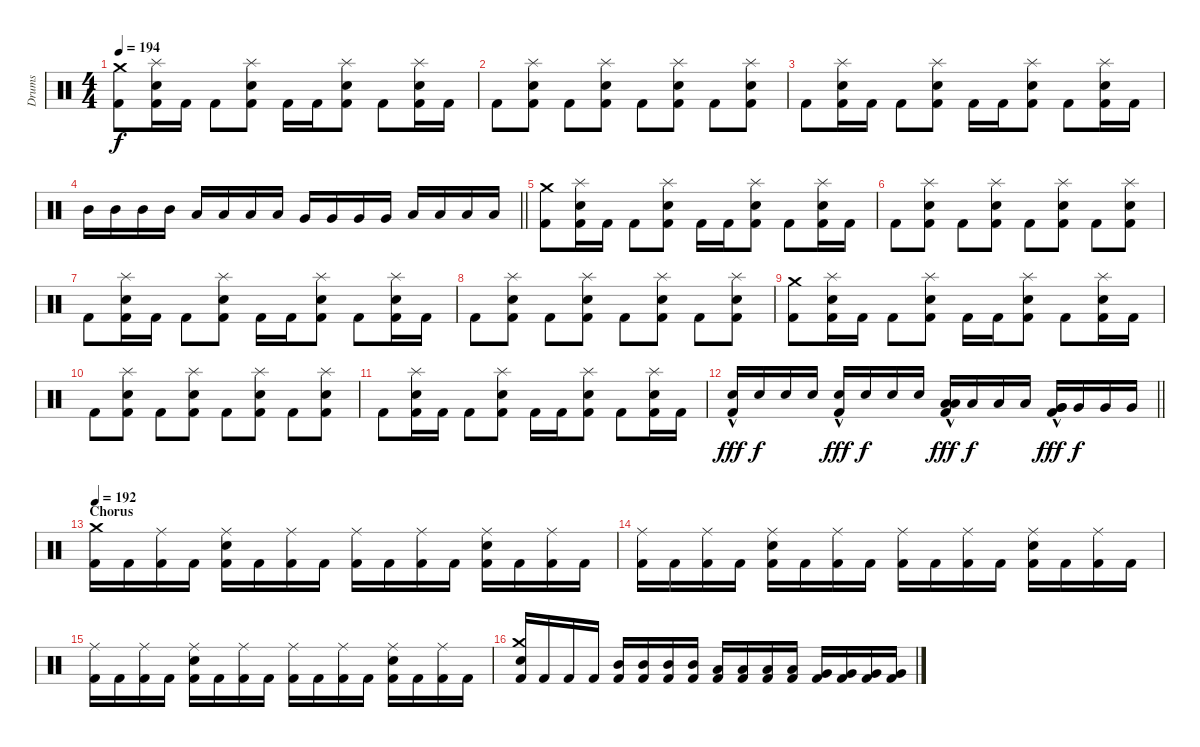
\track ("Drums" "Drums") {instrument percussion}
\staff {score}
\articulation defaults
\ts (4 4)
\tempo 194
\clef neutral
\ks c
("Kick (hit) 2" "Crash medium (hit)").8{dy f} ("Kick (hit) 2" "Snare (hit) 2" "Splash (hit)").16 "Kick (hit) 2".16 "Kick (hit) 2".8 ("Kick (hit) 2" "Snare (hit) 2" "Splash (hit)").8 "Kick (hit) 2".16 "Kick (hit) 2".16 ("Kick (hit) 2" "Snare (hit) 2" "Splash (hit)").8 "Kick (hit) 2".8 ("Kick (hit) 2" "Snare (hit) 2" "Splash (hit)").16 "Kick (hit) 2".16 |
"Kick (hit) 2".8 ("Kick (hit) 2" "Snare (hit) 2" "Splash (hit)").8 "Kick (hit) 2".8 ("Kick (hit) 2" "Snare (hit) 2" "Splash (hit)").8 "Kick (hit) 2".8 ("Kick (hit) 2" "Snare (hit) 2" "Splash (hit)").8 "Kick (hit) 2".8 ("Kick (hit) 2" "Snare (hit) 2" "Splash (hit)").8 |
"Kick (hit) 2".8 ("Kick (hit) 2" "Snare (hit) 2" "Splash (hit)").16 "Kick (hit) 2".16 "Kick (hit) 2".8 ("Kick (hit) 2" "Snare (hit) 2" "Splash (hit)").8 "Kick (hit) 2".16 "Kick (hit) 2".16 ("Kick (hit) 2" "Snare (hit) 2" "Splash (hit)").8 "Kick (hit) 2".8 ("Kick (hit) 2" "Snare (hit) 2" "Splash (hit)").16 "Kick (hit) 2".16 |
\barLineRight lightlight "Mid Tom (hit)".16 "Mid Tom (hit)".16 "Mid Tom (hit)".16 "Mid Tom (hit)".16 "Low Tom (hit)".16 "Low Tom (hit)".16 "Low Tom (hit)".16 "Low Tom (hit)".16 "Very Low Tom (hit)".16 "Very Low Tom (hit)".16 "Very Low Tom (hit)".16 "Very Low Tom (hit)".16 "Low Floor Tom (hit)".16 "Low Floor Tom (hit)".16 "Low Floor Tom (hit)".16 "Low Floor Tom (hit)".16
|
\section ("" "")
("Kick (hit) 2" "Crash medium (hit)").8 ("Kick (hit) 2" "Snare (hit) 2" "Splash (hit)").16 "Kick (hit) 2".16 "Kick (hit) 2".8 ("Kick (hit) 2" "Snare (hit) 2" "Splash (hit)").8 "Kick (hit) 2".16 "Kick (hit) 2".16 ("Kick (hit) 2" "Snare (hit) 2" "Splash (hit)").8 "Kick (hit) 2".8 ("Kick (hit) 2" "Snare (hit) 2" "Splash (hit)").16 "Kick (hit) 2".16 |
"Kick (hit) 2".8 ("Kick (hit) 2" "Snare (hit) 2" "Splash (hit)").8 "Kick (hit) 2".8 ("Kick (hit) 2" "Snare (hit) 2" "Splash (hit)").8 "Kick (hit) 2".8 ("Kick (hit) 2" "Snare (hit) 2" "Splash (hit)").8 "Kick (hit) 2".8 ("Kick (hit) 2" "Snare (hit) 2" "Splash (hit)").8 |
"Kick (hit) 2".8 ("Kick (hit) 2" "Snare (hit) 2" "Splash (hit)").16 "Kick (hit) 2".16 "Kick (hit) 2".8 ("Kick (hit) 2" "Snare (hit) 2" "Splash (hit)").8 "Kick (hit) 2".16 "Kick (hit) 2".16 ("Kick (hit) 2" "Snare (hit) 2" "Splash (hit)").8 "Kick (hit) 2".8 ("Kick (hit) 2" "Snare (hit) 2" "Splash (hit)").16 "Kick (hit) 2".16 |
"Kick (hit) 2".8 ("Kick (hit) 2" "Snare (hit) 2" "Splash (hit)").8 "Kick (hit) 2".8 ("Kick (hit) 2" "Snare (hit) 2" "Splash (hit)").8 "Kick (hit) 2".8 ("Kick (hit) 2" "Snare (hit) 2" "Splash (hit)").8 "Kick (hit) 2".8 ("Kick (hit) 2" "Snare (hit) 2" "Splash (hit)").8 |
("Kick (hit) 2" "Crash medium (hit)").8 ("Kick (hit) 2" "Snare (hit) 2" "Splash (hit)").16 "Kick (hit) 2".16 "Kick (hit) 2".8 ("Kick (hit) 2" "Snare (hit) 2" "Splash (hit)").8 "Kick (hit) 2".16 "Kick (hit) 2".16 ("Kick (hit) 2" "Snare (hit) 2" "Splash (hit)").8 "Kick (hit) 2".8 ("Kick (hit) 2" "Snare (hit) 2" "Splash (hit)").16 "Kick (hit) 2".16 |
"Kick (hit) 2".8 ("Kick (hit) 2" "Snare (hit) 2" "Splash (hit)").8 "Kick (hit) 2".8 ("Kick (hit) 2" "Snare (hit) 2" "Splash (hit)").8 "Kick (hit) 2".8 ("Kick (hit) 2" "Snare (hit) 2" "Splash (hit)").8 "Kick (hit) 2".8 ("Kick (hit) 2" "Snare (hit) 2" "Splash (hit)").8 |
"Kick (hit) 2".8 ("Kick (hit) 2" "Snare (hit) 2" "Splash (hit)").16 "Kick (hit) 2".16 "Kick (hit) 2".8 ("Kick (hit) 2" "Snare (hit) 2" "Splash (hit)").8 "Kick (hit) 2".16 "Kick (hit) 2".16 ("Kick (hit) 2" "Snare (hit) 2" "Splash (hit)").8 "Kick (hit) 2".8 ("Kick (hit) 2" "Snare (hit) 2" "Splash (hit)").16 "Kick (hit) 2".16 |
\barLineRight lightlight
("Kick (hit) 2" "Snare (hit) 2"{hac}).16{dy fff} "Snare (hit) 2".16{dy f} "Snare (hit) 2".16 "Snare (hit) 2".16 ("Kick (hit) 2" "Snare (hit) 2"{hac}).16{dy fff} "Snare (hit) 2".16{dy f} "Snare (hit) 2".16 "Snare (hit) 2".16 ("Kick (hit) 2" "Low Tom (hit)"{hac} "Low Tom (hit)"{hac}).16{dy fff} "Low Tom (hit)".16{dy f} "Low Tom (hit)".16 "Low Tom (hit)".16 ("Kick (hit) 2" "Very Low Tom (hit)"{hac} "Very Low Tom (hit)"{hac}).16{dy fff} "Very Low Tom (hit)".16{dy f} "Very Low Tom (hit)".16 "Very Low Tom (hit)".16 |
\section ("" "Chorus")
\tempo 192
("Kick (hit) 2" "Crash medium (hit)").16 "Kick (hit) 2".16 ("Kick (hit) 2" "Ride (middle)").16 "Kick (hit) 2".16 ("Kick (hit) 2" "Snare (hit) 2" "Ride (middle)").16 "Kick (hit) 2".16 ("Kick (hit) 2" "Ride (middle)").16 "Kick (hit) 2".16 ("Kick (hit) 2" "Ride (middle)").16 "Kick (hit) 2".16 ("Kick (hit) 2" "Ride (middle)").16 "Kick (hit) 2".16 ("Kick (hit) 2" "Snare (hit) 2" "Ride (middle)").16 "Kick (hit) 2".16 ("Kick (hit) 2" "Ride (middle)").16 "Kick (hit) 2".16 |
("Kick (hit) 2" "Ride (middle)").16 "Kick (hit) 2".16 ("Kick (hit) 2" "Ride (middle)").16 "Kick (hit) 2".16 ("Kick (hit) 2" "Snare (hit) 2" "Ride (middle)").16 "Kick (hit) 2".16 ("Kick (hit) 2" "Ride (middle)").16 "Kick (hit) 2".16 ("Kick (hit) 2" "Ride (middle)").16 "Kick (hit) 2".16 ("Kick (hit) 2" "Ride (middle)").16 "Kick (hit) 2".16 ("Kick (hit) 2" "Snare (hit) 2" "Ride (middle)").16 "Kick (hit) 2".16 ("Kick (hit) 2" "Ride (middle)").16 "Kick (hit) 2".16 |
("Kick (hit) 2" "Ride (middle)").16 "Kick (hit) 2".16 ("Kick (hit) 2" "Ride (middle)").16 "Kick (hit) 2".16 ("Kick (hit) 2" "Snare (hit) 2" "Ride (middle)").16 "Kick (hit) 2".16 ("Kick (hit) 2" "Ride (middle)").16 "Kick (hit) 2".16 ("Kick (hit) 2" "Ride (middle)").16 "Kick (hit) 2".16 ("Kick (hit) 2" "Ride (middle)").16 "Kick (hit) 2".16 ("Kick (hit) 2" "Snare (hit) 2" "Ride (middle)").16 "Kick (hit) 2".16 ("Kick (hit) 2" "Ride (middle)").16 "Kick (hit) 2".16 |
("Kick (hit) 2" "Snare (hit) 2" "Crash medium (hit)").16 "Kick (hit) 2".16 "Kick (hit) 2".16 "Kick (hit) 2".16 ("Kick (hit) 2" "Mid Tom (hit)").16 ("Kick (hit) 2" "Mid Tom (hit)").16 ("Kick (hit) 2" "Mid Tom (hit)").16 ("Kick (hit) 2" "Mid Tom (hit)").16 ("Kick (hit) 2" "Low Tom (hit)").16 ("Kick (hit) 2" "Low Tom (hit)").16 ("Kick (hit) 2" "Low Tom (hit)").16 ("Kick (hit) 2" "Low Tom (hit)").16 ("Kick (hit) 2" "Very Low Tom (hit)").16 ("Kick (hit) 2" "Very Low Tom (hit)").16 ("Kick (hit) 2" "Very Low Tom (hit)").16 ("Kick (hit) 2" "Very Low Tom (hit)").16
